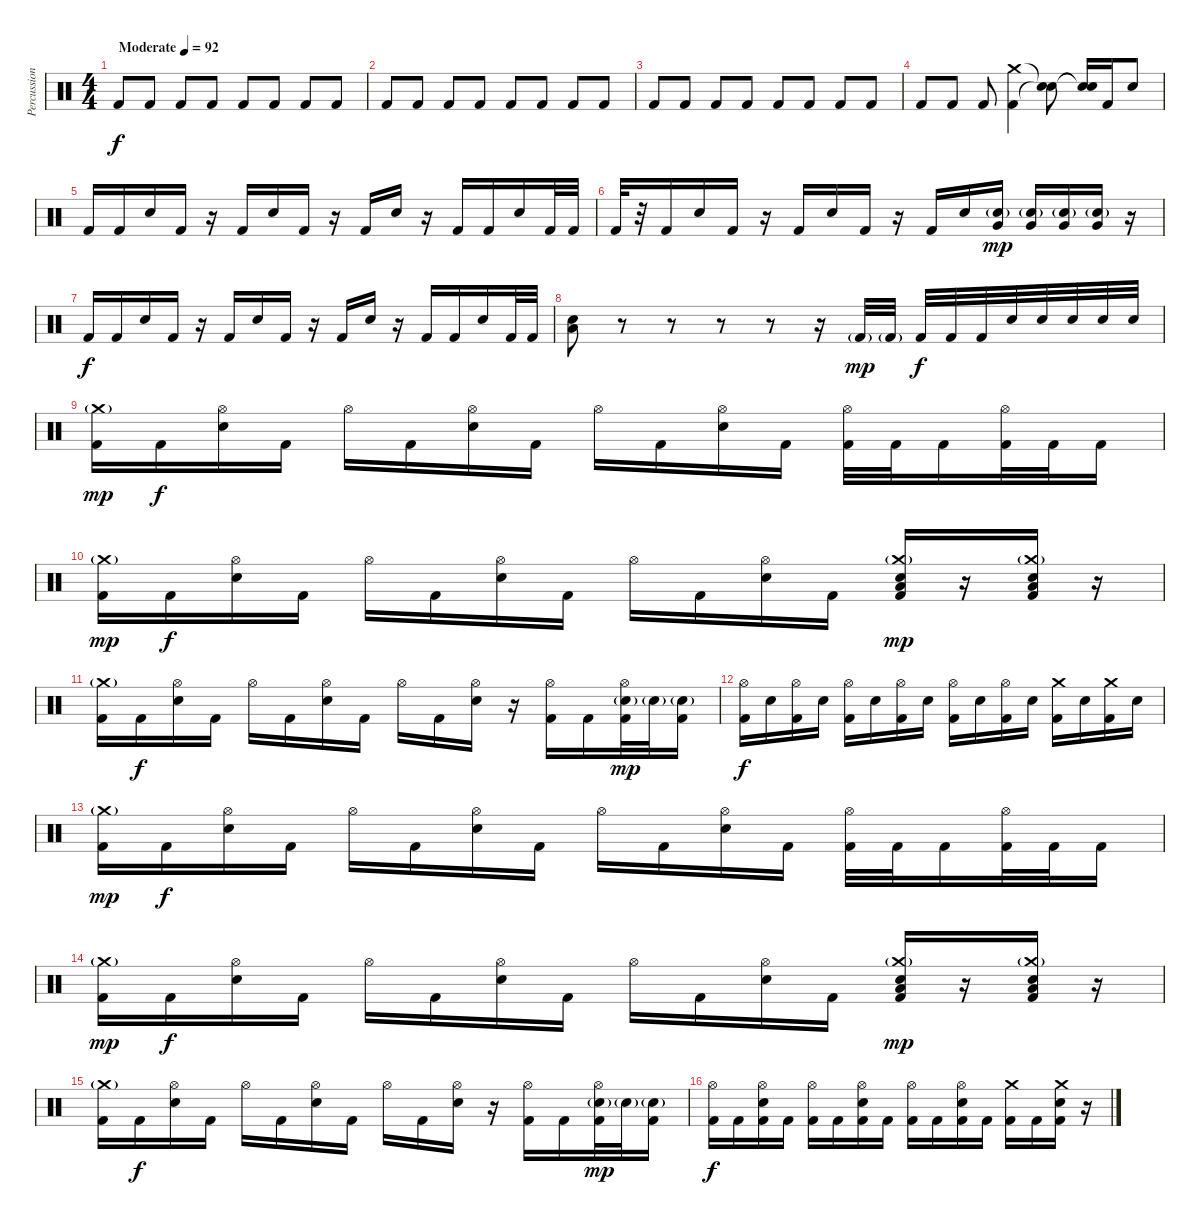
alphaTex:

\track ("Percussion" "Percussion") {instrument percussion}
\staff {score}
\articulation defaults
\ts (4 4)
\tempo (92 "Moderate")
\clef neutral
\ks c "Kick (hit) 2".8{dy f} "Kick (hit) 2".8 "Kick (hit) 2".8 "Kick (hit) 2".8 "Kick (hit) 2".8 "Kick (hit) 2".8 "Kick (hit) 2".8 "Kick (hit) 2".8
|
"Kick (hit) 2".8 "Kick (hit) 2".8 "Kick (hit) 2".8 "Kick (hit) 2".8 "Kick (hit) 2".8 "Kick (hit) 2".8 "Kick (hit) 2".8 "Kick (hit) 2".8 |
"Kick (hit) 2".8 "Kick (hit) 2".8 "Kick (hit) 2".8 "Kick (hit) 2".8 "Kick (hit) 2".8 "Kick (hit) 2".8 "Kick (hit) 2".8 "Kick (hit) 2".8 |
"Kick (hit) 2".8 "Kick (hit) 2".8 "Kick (hit) 2".8 ("Crash medium (hit)" "Kick (hit) 2").4 ("Snare (hit)"{t} "Snare (hit)"{t}).8 ("Snare (hit)"{t} "Snare (hit)"{t}).16 "Kick (hit) 2".16 "Electric Snare (hit)".8 |
"Kick (hit) 2".16 "Kick (hit) 2".16 "Electric Snare (hit)".16 "Kick (hit) 2".16 r.16 "Kick (hit) 2".16 "Electric Snare (hit)".16 "Kick (hit) 2".16 r.16 "Kick (hit) 2".16 "Electric Snare (hit)".16 r.16 "Kick (hit) 2".16 "Kick (hit) 2".16 "Electric Snare (hit)".16 "Kick (hit) 2".32 "Kick (hit) 2".32 |
"Kick (hit) 2".32 r.32 "Kick (hit) 2".16 "Electric Snare (hit)".16 "Kick (hit) 2".16 r.16 "Kick (hit) 2".16 "Electric Snare (hit)".16 "Kick (hit) 2".16 r.16 "Kick (hit) 2".16 "Electric Snare (hit)".16 ("Very Low Tom (hit)" "Electric Snare (hit)"{g}).16{dy mp} ("Very Low Tom (hit)" "Electric Snare (hit)"{g}).16 ("Very Low Tom (hit)" "Electric Snare (hit)"{g}).16 ("Very Low Tom (hit)" "Electric Snare (hit)"{g}).16 r.16 |
"Kick (hit) 2".16{dy f} "Kick (hit) 2".16 "Electric Snare (hit)".16 "Kick (hit) 2".16 r.16 "Kick (hit) 2".16 "Electric Snare (hit)".16 "Kick (hit) 2".16 r.16 "Kick (hit) 2".16 "Electric Snare (hit)".16 r.16 "Kick (hit) 2".16 "Kick (hit) 2".16 "Electric Snare (hit)".16 "Kick (hit) 2".32 "Kick (hit) 2".32 |
("Low Floor Tom (hit)" "Electric Snare (hit)").8 r.8 r.8 r.8 r.8 r.16 "Kick (hit) 2"{g}.32{dy mp} "Kick (hit) 2"{g}.32 "Kick (hit) 2".32{dy f} "Kick (hit) 2".32 "Kick (hit) 2".32 "Electric Snare (hit)".32 "Electric Snare (hit)".32 "Electric Snare (hit)".32 "Electric Snare (hit)".32 "Electric Snare (hit)".32 |
("Crash medium (hit)"{g} "Kick (hit) 2").16{dy mp} "Kick (hit) 2".16{dy f} ("Hi-Hat (open)" "Electric Snare (hit)").16 "Kick (hit) 2".16 "Hi-Hat (open)".16 "Kick (hit) 2".16 ("Hi-Hat (open)" "Electric Snare (hit)").16 "Kick (hit) 2".16 "Hi-Hat (open)".16 "Kick (hit) 2".16 ("Hi-Hat (open)" "Electric Snare (hit)").16 "Kick (hit) 2".16 ("Hi-Hat (open)" "Kick (hit) 2").32 "Kick (hit) 2".32 "Kick (hit) 2".16 ("Hi-Hat (open)" "Kick (hit) 2").32 "Kick (hit) 2".32 "Kick (hit) 2".16 |
("Crash medium (hit)"{g} "Kick (hit) 2").16{dy mp} "Kick (hit) 2".16{dy f} ("Hi-Hat (open)" "Electric Snare (hit)").16 "Kick (hit) 2".16 "Hi-Hat (open)".16 "Kick (hit) 2".16 ("Hi-Hat (open)" "Electric Snare (hit)").16 "Kick (hit) 2".16 "Hi-Hat (open)".16 "Kick (hit) 2".16 ("Hi-Hat (open)" "Electric Snare (hit)").16 "Kick (hit) 2".16 ("Crash medium (hit)"{g} "Low Floor Tom (hit)" "Electric Snare (hit)" "Kick (hit) 2").16{dy mp} r.16 ("Crash medium (hit)"{g} "Low Floor Tom (hit)" "Electric Snare (hit)" "Kick (hit) 2").16 r.16 |
("Crash medium (hit)"{g} "Kick (hit) 2").16 "Kick (hit) 2".16{dy f} ("Hi-Hat (open)" "Electric Snare (hit)").16 "Kick (hit) 2".16 "Hi-Hat (open)".16 "Kick (hit) 2".16 ("Hi-Hat (open)" "Electric Snare (hit)").16 "Kick (hit) 2".16 "Hi-Hat (open)".16 "Kick (hit) 2".16 ("Hi-Hat (open)" "Electric Snare (hit)").16 r.16 ("Hi-Hat (open)" "Kick (hit) 2").16 "Kick (hit) 2".16 ("Hi-Hat (open)" "Electric Snare (hit)"{g} "Kick (hit) 2").32{dy mp} "Electric Snare (hit)"{g}.32 ("Electric Snare (hit)"{g} "Kick (hit) 2").16 |
("Hi-Hat (open)" "Kick (hit) 2").16{dy f} "Electric Snare (hit)".16 ("Hi-Hat (open)" "Kick (hit) 2").16 "Electric Snare (hit)".16 ("Hi-Hat (open)" "Kick (hit) 2").16 "Electric Snare (hit)".16 ("Hi-Hat (open)" "Kick (hit) 2").16 "Electric Snare (hit)".16 ("Hi-Hat (open)" "Kick (hit) 2").16 "Electric Snare (hit)".16 ("Hi-Hat (open)" "Kick (hit) 2").16 "Electric Snare (hit)".16 ("Crash medium (hit)" "Kick (hit) 2").16 "Electric Snare (hit)".16 ("Crash medium (hit)" "Kick (hit) 2").16 "Electric Snare (hit)".16 |
("Crash medium (hit)"{g} "Kick (hit) 2").16{dy mp} "Kick (hit) 2".16{dy f} ("Hi-Hat (open)" "Electric Snare (hit)").16 "Kick (hit) 2".16 "Hi-Hat (open)".16 "Kick (hit) 2".16 ("Hi-Hat (open)" "Electric Snare (hit)").16 "Kick (hit) 2".16 "Hi-Hat (open)".16 "Kick (hit) 2".16 ("Hi-Hat (open)" "Electric Snare (hit)").16 "Kick (hit) 2".16 ("Hi-Hat (open)" "Kick (hit) 2").32 "Kick (hit) 2".32 "Kick (hit) 2".16 ("Hi-Hat (open)" "Kick (hit) 2").32 "Kick (hit) 2".32 "Kick (hit) 2".16 |
("Crash medium (hit)"{g} "Kick (hit) 2").16{dy mp} "Kick (hit) 2".16{dy f} ("Hi-Hat (open)" "Electric Snare (hit)").16 "Kick (hit) 2".16 "Hi-Hat (open)".16 "Kick (hit) 2".16 ("Hi-Hat (open)" "Electric Snare (hit)").16 "Kick (hit) 2".16 "Hi-Hat (open)".16 "Kick (hit) 2".16 ("Hi-Hat (open)" "Electric Snare (hit)").16 "Kick (hit) 2".16 ("Crash medium (hit)"{g} "Low Floor Tom (hit)" "Electric Snare (hit)" "Kick (hit) 2").16{dy mp} r.16 ("Crash medium (hit)"{g} "Low Floor Tom (hit)" "Electric Snare (hit)" "Kick (hit) 2").16 r.16 |
("Crash medium (hit)"{g} "Kick (hit) 2").16 "Kick (hit) 2".16{dy f} ("Hi-Hat (open)" "Electric Snare (hit)").16 "Kick (hit) 2".16 "Hi-Hat (open)".16 "Kick (hit) 2".16 ("Hi-Hat (open)" "Electric Snare (hit)").16 "Kick (hit) 2".16 "Hi-Hat (open)".16 "Kick (hit) 2".16 ("Hi-Hat (open)" "Electric Snare (hit)").16 r.16 ("Hi-Hat (open)" "Kick (hit) 2").16 "Kick (hit) 2".16 ("Hi-Hat (open)" "Electric Snare (hit)"{g} "Kick (hit) 2").32{dy mp} "Electric Snare (hit)"{g}.32 ("Electric Snare (hit)"{g} "Kick (hit) 2").16 |
("Hi-Hat (open)" "Kick (hit) 2").16{dy f} "Kick (hit) 2".16 ("Hi-Hat (open)" "Electric Snare (hit)" "Kick (hit) 2").16 "Kick (hit) 2".16 ("Hi-Hat (open)" "Kick (hit) 2").16 "Kick (hit) 2".16 ("Hi-Hat (open)" "Electric Snare (hit)" "Kick (hit) 2").16 "Kick (hit) 2".16 ("Hi-Hat (open)" "Kick (hit) 2").16 "Kick (hit) 2".16 ("Hi-Hat (open)" "Electric Snare (hit)" "Kick (hit) 2").16 "Kick (hit) 2".16 ("Crash medium (hit)" "Kick (hit) 2").16 "Kick (hit) 2".16 ("Crash medium (hit)" "Electric Snare (hit)" "Kick (hit) 2").16 r.16
